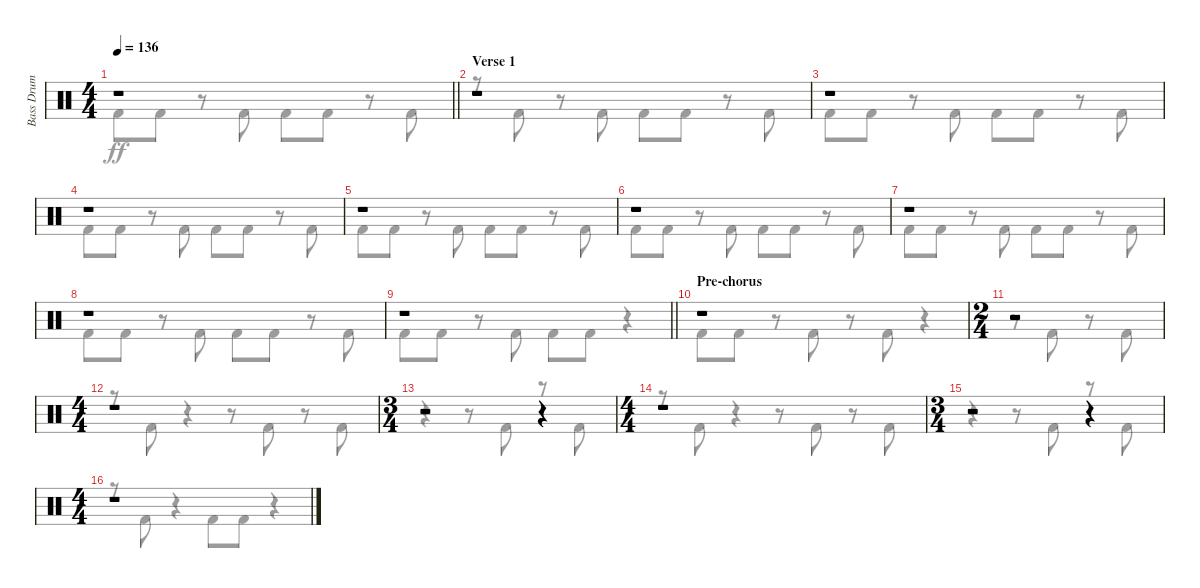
\track ("Bass Drum" "Bass Drum") {instrument percussion}
\staff {score}
\articulation defaults
\voice
\ts (4 4)
\tempo 136
\clef neutral
\barLineRight lightlight
\ks c
r.1{dy f} |
\section ("" "Verse 1")
r.1 |
r.1 |
r.1 |
r.1 |
r.1 |
r.1 |
r.1 |
\barLineRight lightlight
r.1 |
\section ("" "Pre-chorus")
r.1 |
\ts (2 4)
r.2 |
\ts (4 4)
r.1 |
\ts (3 4)
r.2 r.4 |
\ts (4 4)
r.1 |
\ts (3 4)
r.2 r.4 |
\ts (4 4)
r.1
\voice
\clef neutral
\ottava regular
\simile none
\barLineRight lightlight
\ks c "Kick (hit) 2".8{dy ff} "Kick (hit) 2".8
r.8 "Kick (hit) 2".8 "Kick (hit) 2".8 "Kick (hit) 2".8 r.8 "Kick (hit) 2".8 |
r.8 "Kick (hit) 2".8 r.8 "Kick (hit) 2".8 "Kick (hit) 2".8 "Kick (hit) 2".8 r.8 "Kick (hit) 2".8 |
"Kick (hit) 2".8 "Kick (hit) 2".8 r.8 "Kick (hit) 2".8 "Kick (hit) 2".8 "Kick (hit) 2".8 r.8 "Kick (hit) 2".8 |
"Kick (hit) 2".8 "Kick (hit) 2".8 r.8 "Kick (hit) 2".8 "Kick (hit) 2".8 "Kick (hit) 2".8 r.8 "Kick (hit) 2".8 |
"Kick (hit) 2".8 "Kick (hit) 2".8 r.8 "Kick (hit) 2".8 "Kick (hit) 2".8 "Kick (hit) 2".8 r.8 "Kick (hit) 2".8 |
"Kick (hit) 2".8 "Kick (hit) 2".8 r.8 "Kick (hit) 2".8 "Kick (hit) 2".8 "Kick (hit) 2".8 r.8 "Kick (hit) 2".8 |
"Kick (hit) 2".8 "Kick (hit) 2".8 r.8 "Kick (hit) 2".8 "Kick (hit) 2".8 "Kick (hit) 2".8 r.8 "Kick (hit) 2".8 |
"Kick (hit) 2".8 "Kick (hit) 2".8 r.8 "Kick (hit) 2".8 "Kick (hit) 2".8 "Kick (hit) 2".8 r.8 "Kick (hit) 2".8 |
\barLineRight lightlight "Kick (hit) 2".8 "Kick (hit) 2".8
r.8 "Kick (hit) 2".8 "Kick (hit) 2".8 "Kick (hit) 2".8 r.4 |
"Kick (hit) 2".8 "Kick (hit) 2".8 r.8 "Kick (hit) 2".8 r.8 "Kick (hit) 2".8 r.4 |
r.8 "Kick (hit) 2".8 r.8 "Kick (hit) 2".8 |
r.8 "Kick (hit) 2".8 r.4 r.8 "Kick (hit) 2".8 r.8 "Kick (hit) 2".8 |
r.4 r.8 "Kick (hit) 2".8 r.8 "Kick (hit) 2".8 |
r.8 "Kick (hit) 2".8 r.4 r.8 "Kick (hit) 2".8 r.8 "Kick (hit) 2".8 |
r.4 r.8 "Kick (hit) 2".8 r.8 "Kick (hit) 2".8 |
r.8 "Kick (hit) 2".8 r.4 "Kick (hit) 2".8 "Kick (hit) 2".8 r.4
